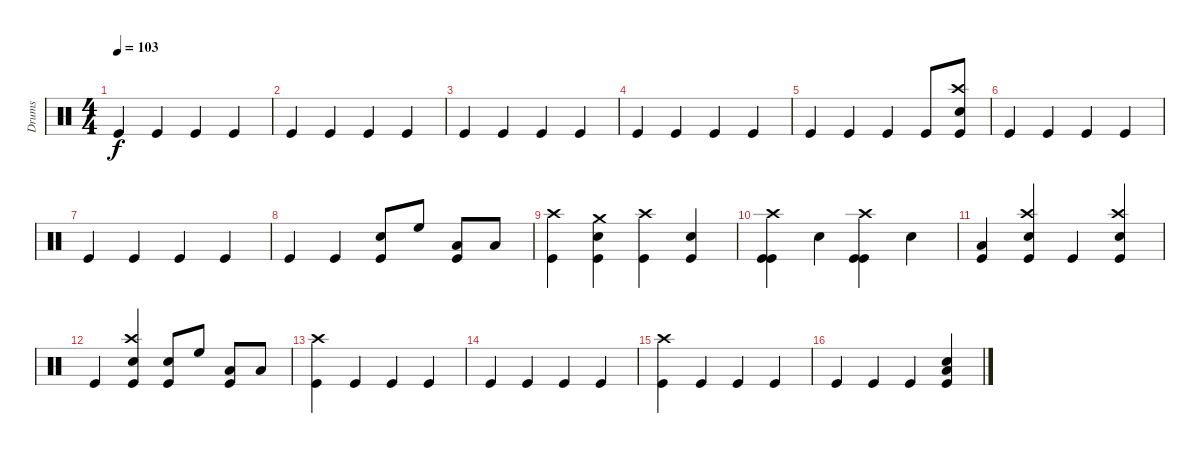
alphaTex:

\track ("Drums" "Drums") {instrument percussion}
\staff {score}
\articulation defaults
\ts (4 4)
\tempo 103
\clef neutral
\ks c "Kick (hit)".4{dy f} "Kick (hit)".4 "Kick (hit)".4 "Kick (hit)".4
|
"Kick (hit)".4 "Kick (hit)".4 "Kick (hit)".4 "Kick (hit)".4 |
"Kick (hit)".4 "Kick (hit)".4 "Kick (hit)".4 "Kick (hit)".4 |
"Kick (hit)".4 "Kick (hit)".4 "Kick (hit)".4 "Kick (hit)".4 |
"Kick (hit)".4 "Kick (hit)".4 "Kick (hit)".4 "Kick (hit)".8 ("Crash high (hit)" "Snare (hit) 2" "Kick (hit)").8 |
"Kick (hit)".4 "Kick (hit)".4 "Kick (hit)".4 "Kick (hit)".4 |
"Kick (hit)".4 "Kick (hit)".4 "Kick (hit)".4 "Kick (hit)".4 |
"Kick (hit)".4 "Kick (hit)".4 ("Snare (hit) 2" "Kick (hit)").8 "High Floor Tom (hit)".8 ("Low Tom (hit)" "Kick (hit)").8 "Low Floor Tom (hit)".8 |
("Crash high (hit)" "Kick (hit)").4 ("Crash medium (hit)" "Kick (hit)" "Snare (hit) 2").4 ("Crash high (hit)" "Kick (hit)").4 ("Kick (hit)" "Snare (hit) 2").4 |
("Crash high (hit)" "Kick (hit)" "Kick (hit)").4 "Snare (hit) 2".4 ("Crash high (hit)" "Kick (hit)" "Kick (hit)").4 "Snare (hit) 2".4 |
("Low Floor Tom (hit)" "Kick (hit)").4 ("Crash high (hit)" "Kick (hit)" "Snare (hit) 2").4 "Kick (hit)".4 ("Crash high (hit)" "Kick (hit)" "Snare (hit) 2").4 |
"Kick (hit)".4 ("Crash high (hit)" "Snare (hit) 2" "Kick (hit)").4 ("Snare (hit) 2" "Kick (hit)").8 "High Floor Tom (hit)".8 ("Low Tom (hit)" "Kick (hit)").8 "Low Floor Tom (hit)".8 |
("Crash high (hit)" "Kick (hit)").4 "Kick (hit)".4 "Kick (hit)".4 "Kick (hit)".4 |
"Kick (hit)".4 "Kick (hit)".4 "Kick (hit)".4 "Kick (hit)".4 |
("Crash high (hit)" "Kick (hit)").4 "Kick (hit)".4 "Kick (hit)".4 "Kick (hit)".4 |
"Kick (hit)".4 "Kick (hit)".4 "Kick (hit)".4 ("Electric Snare (hit)" "Low Floor Tom (hit)" "Kick (hit)").4
